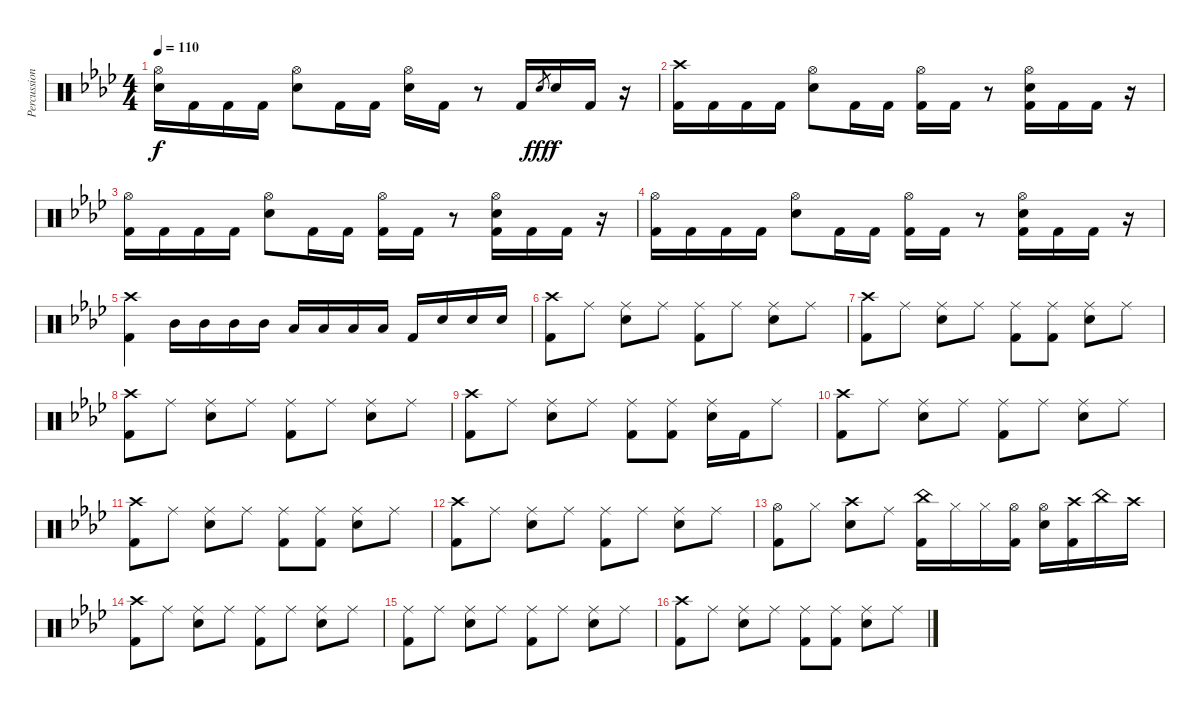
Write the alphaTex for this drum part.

\track ("Percussions" "Percussion") {instrument percussion}
\staff {score}
\articulation defaults
\ts (4 4)
\tempo 110
\clef neutral
\ks fminor
("Hi-Hat (open)" "Snare (hit) 2").16{dy f} "Kick (hit) 2".16 "Kick (hit) 2".16 "Kick (hit) 2".16 ("Hi-Hat (open)" "Snare (hit) 2").8 "Kick (hit) 2".16 "Kick (hit) 2".16 ("Hi-Hat (open)" "Snare (hit) 2").16 "Kick (hit) 2".16 r.8 "Kick (hit) 2".16 "Snare (hit) 2"{h}.8{gr dy fff} "Snare (hit) 2".16{dy f} "Kick (hit) 2".16 r.16 |
("Crash high (hit)" "Kick (hit) 2").16 "Kick (hit) 2".16 "Kick (hit) 2".16 "Kick (hit) 2".16 ("Hi-Hat (open)" "Snare (hit) 2").8 "Kick (hit) 2".16 "Kick (hit) 2".16 ("Hi-Hat (open)" "Kick (hit) 2").16 "Kick (hit) 2".16 r.8 ("Hi-Hat (open)" "Snare (hit) 2" "Kick (hit) 2").16 "Kick (hit) 2".16 "Kick (hit) 2".16 r.16 |
("Hi-Hat (open)" "Kick (hit) 2").16 "Kick (hit) 2".16 "Kick (hit) 2".16 "Kick (hit) 2".16 ("Hi-Hat (open)" "Snare (hit) 2").8 "Kick (hit) 2".16 "Kick (hit) 2".16 ("Hi-Hat (open)" "Kick (hit) 2").16 "Kick (hit) 2".16 r.8 ("Hi-Hat (open)" "Snare (hit) 2" "Kick (hit) 2").16 "Kick (hit) 2".16 "Kick (hit) 2".16 r.16 |
("Hi-Hat (open)" "Kick (hit) 2").16 "Kick (hit) 2".16 "Kick (hit) 2".16 "Kick (hit) 2".16 ("Hi-Hat (open)" "Snare (hit) 2").8 "Kick (hit) 2".16 "Kick (hit) 2".16 ("Hi-Hat (open)" "Kick (hit) 2").16 "Kick (hit) 2".16 r.8 ("Hi-Hat (open)" "Snare (hit) 2" "Kick (hit) 2").16 "Kick (hit) 2".16 "Kick (hit) 2".16 r.16 |
("Crash high (hit)" "Kick (hit) 2").4 "Mid Tom (hit)".16 "Mid Tom (hit)".16 "Mid Tom (hit)".16 "Mid Tom (hit)".16 "Low Tom (hit)".16 "Low Tom (hit)".16 "Low Tom (hit)".16 "Low Tom (hit)".16 "Kick (hit) 2".16 "Snare (hit) 2".16 "Snare (hit) 2".16 "Snare (hit) 2".16 |
("Crash high (hit)" "Kick (hit) 2").8 "Ride (middle)".8 ("Ride (middle)" "Snare (hit) 2").8 "Ride (middle)".8 ("Ride (middle)" "Kick (hit) 2").8 "Ride (middle)".8 ("Ride (middle)" "Snare (hit) 2").8 "Ride (middle)".8 |
("Crash high (hit)" "Kick (hit) 2").8 "Ride (middle)".8 ("Ride (middle)" "Snare (hit) 2").8 "Ride (middle)".8 ("Ride (middle)" "Kick (hit) 2").8 ("Ride (middle)" "Kick (hit) 2").8 ("Ride (middle)" "Snare (hit) 2").8 "Ride (middle)".8 |
("Crash high (hit)" "Kick (hit) 2").8 "Ride (middle)".8 ("Ride (middle)" "Snare (hit) 2").8 "Ride (middle)".8 ("Ride (middle)" "Kick (hit) 2").8 "Ride (middle)".8 ("Ride (middle)" "Snare (hit) 2").8 "Ride (middle)".8 |
("Crash high (hit)" "Kick (hit) 2").8 "Ride (middle)".8 ("Ride (middle)" "Snare (hit) 2").8 "Ride (middle)".8 ("Ride (middle)" "Kick (hit) 2").8 ("Ride (middle)" "Kick (hit) 2").8 ("Ride (middle)" "Snare (hit) 2").16 "Kick (hit) 2".16 "Ride (middle)".8 |
("Crash high (hit)" "Kick (hit) 2").8 "Ride (middle)".8 ("Ride (middle)" "Snare (hit) 2").8 "Ride (middle)".8 ("Ride (middle)" "Kick (hit) 2").8 "Ride (middle)".8 ("Ride (middle)" "Snare (hit) 2").8 "Ride (middle)".8 |
("Crash high (hit)" "Kick (hit) 2").8 "Ride (middle)".8 ("Ride (middle)" "Snare (hit) 2").8 "Ride (middle)".8 ("Ride (middle)" "Kick (hit) 2").8 ("Ride (middle)" "Kick (hit) 2").8 ("Ride (middle)" "Snare (hit) 2").8 "Ride (middle)".8 |
("Crash high (hit)" "Kick (hit) 2").8 "Ride (middle)".8 ("Ride (middle)" "Snare (hit) 2").8 "Ride (middle)".8 ("Ride (middle)" "Kick (hit) 2").8 "Ride (middle)".8 ("Ride (middle)" "Snare (hit) 2").8 "Ride (middle)".8 |
("Hi-Hat (open)" "Kick (hit) 2").8 "Hi-Hat (closed)".8 ("Crash high (hit)" "Snare (hit) 2").8 "Ride (middle)".8 ("China (hit)" "Kick (hit) 2").16 "Hi-Hat (closed)".16 "Hi-Hat (closed)".16 ("Hi-Hat (open)" "Kick (hit) 2").16 ("Hi-Hat (open)" "Snare (hit) 2").16 ("Crash high (hit)" "Kick (hit) 2").16 "China (hit)".16 "Crash high (hit)".16 |
("Crash high (hit)" "Kick (hit) 2").8 "Ride (middle)".8 ("Ride (middle)" "Snare (hit) 2").8 "Ride (middle)".8 ("Ride (middle)" "Kick (hit) 2").8 "Ride (middle)".8 ("Ride (middle)" "Snare (hit) 2").8 "Ride (middle)".8 |
("Ride (middle)" "Kick (hit) 2").8 "Ride (middle)".8 ("Ride (middle)" "Snare (hit) 2").8 "Ride (middle)".8 ("Ride (middle)" "Kick (hit) 2").8 "Ride (middle)".8 ("Ride (middle)" "Snare (hit) 2").8 "Ride (middle)".8 |
("Crash high (hit)" "Kick (hit) 2").8 "Ride (middle)".8 ("Ride (middle)" "Snare (hit) 2").8 "Ride (middle)".8 ("Ride (middle)" "Kick (hit) 2").8 ("Ride (middle)" "Kick (hit) 2").8 ("Ride (middle)" "Snare (hit) 2").8 "Ride (middle)".8
